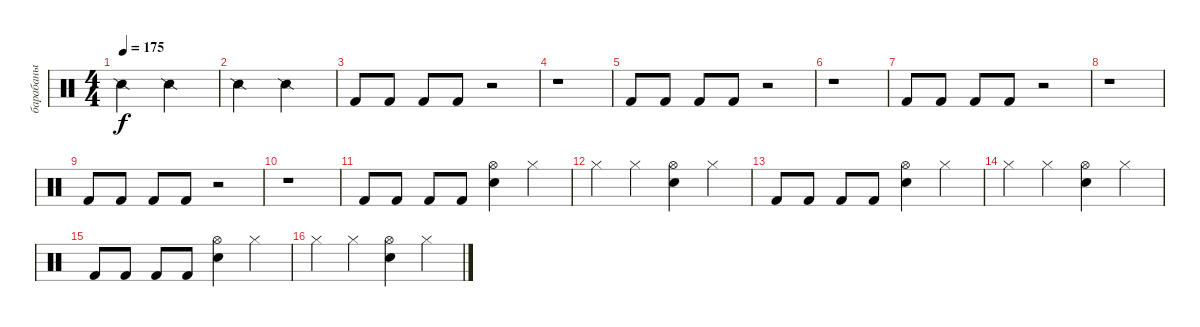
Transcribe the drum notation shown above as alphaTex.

\track ("барабаны" "барабаны") {instrument percussion}
\staff {score}
\articulation defaults
\ts (4 4)
\tempo 175
\clef neutral
\ks c "Snare (side stick) 2".2{dy f} "Snare (side stick) 2".2
|
"Snare (side stick) 2".2 "Snare (side stick) 2".2 |
"Kick (hit) 2".8 "Kick (hit) 2".8 "Kick (hit) 2".8 "Kick (hit) 2".8 r.2 |
r.1 |
"Kick (hit) 2".8 "Kick (hit) 2".8 "Kick (hit) 2".8 "Kick (hit) 2".8 r.2 |
r.1 |
"Kick (hit) 2".8 "Kick (hit) 2".8 "Kick (hit) 2".8 "Kick (hit) 2".8 r.2 |
r.1 |
"Kick (hit) 2".8 "Kick (hit) 2".8 "Kick (hit) 2".8 "Kick (hit) 2".8 r.2 |
r.1 |
"Kick (hit) 2".8 "Kick (hit) 2".8 "Kick (hit) 2".8 "Kick (hit) 2".8 ("Hi-Hat (open)" "Snare (hit) 2").4 "Hi-Hat (closed)".4 |
"Hi-Hat (closed)".4 "Hi-Hat (closed)".4 ("Hi-Hat (open)" "Snare (hit) 2").4 "Hi-Hat (closed)".4 |
"Kick (hit) 2".8 "Kick (hit) 2".8 "Kick (hit) 2".8 "Kick (hit) 2".8 ("Hi-Hat (open)" "Snare (hit) 2").4 "Hi-Hat (closed)".4 |
"Hi-Hat (closed)".4 "Hi-Hat (closed)".4 ("Hi-Hat (open)" "Snare (hit) 2").4 "Hi-Hat (closed)".4 |
"Kick (hit) 2".8 "Kick (hit) 2".8 "Kick (hit) 2".8 "Kick (hit) 2".8 ("Hi-Hat (open)" "Snare (hit) 2").4 "Hi-Hat (closed)".4 |
"Hi-Hat (closed)".4 "Hi-Hat (closed)".4 ("Hi-Hat (open)" "Snare (hit) 2").4 "Hi-Hat (closed)".4
